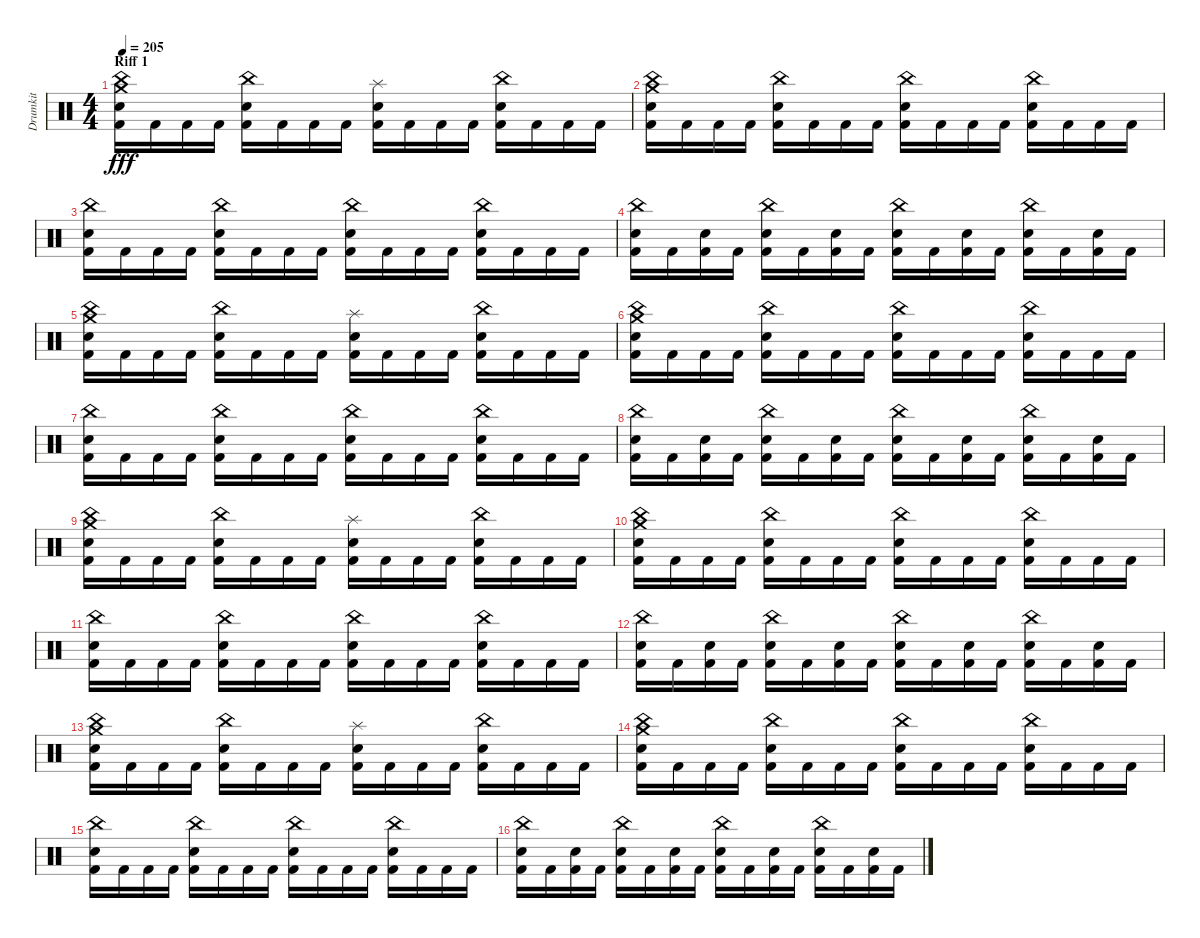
\track ("Drumkit" "Drumkit") {instrument percussion}
\staff {score}
\articulation defaults
\ts (4 4)
\section ("" "Riff 1")
\tempo 205
\clef neutral
\ks c
("Kick (hit) 2" "Snare (hit) 2" "Crash medium (hit)" "China (hit)").16{dy fff} "Kick (hit) 2".16 "Kick (hit) 2".16 "Kick (hit) 2".16 ("Kick (hit) 2" "Snare (hit) 2" "China (hit)").16 "Kick (hit) 2".16 "Kick (hit) 2".16 "Kick (hit) 2".16 ("Kick (hit) 2" "Snare (hit) 2" "Splash (hit)").16 "Kick (hit) 2".16 "Kick (hit) 2".16 "Kick (hit) 2".16 ("Kick (hit) 2" "Snare (hit) 2" "China (hit)").16 "Kick (hit) 2".16 "Kick (hit) 2".16 "Kick (hit) 2".16 |
("Kick (hit) 2" "Snare (hit) 2" "Crash medium (hit)" "China (hit)").16 "Kick (hit) 2".16 "Kick (hit) 2".16 "Kick (hit) 2".16 ("Kick (hit) 2" "Snare (hit) 2" "China (hit)").16 "Kick (hit) 2".16 "Kick (hit) 2".16 "Kick (hit) 2".16 ("Kick (hit) 2" "Snare (hit) 2" "China (hit)").16 "Kick (hit) 2".16 "Kick (hit) 2".16 "Kick (hit) 2".16 ("Kick (hit) 2" "Snare (hit) 2" "China (hit)").16 "Kick (hit) 2".16 "Kick (hit) 2".16 "Kick (hit) 2".16 |
("Kick (hit) 2" "Snare (hit) 2" "China (hit)").16 "Kick (hit) 2".16 "Kick (hit) 2".16 "Kick (hit) 2".16 ("Kick (hit) 2" "Snare (hit) 2" "China (hit)").16 "Kick (hit) 2".16 "Kick (hit) 2".16 "Kick (hit) 2".16 ("Kick (hit) 2" "Snare (hit) 2" "China (hit)").16 "Kick (hit) 2".16 "Kick (hit) 2".16 "Kick (hit) 2".16 ("Kick (hit) 2" "Snare (hit) 2" "China (hit)").16 "Kick (hit) 2".16 "Kick (hit) 2".16 "Kick (hit) 2".16 |
("Kick (hit) 2" "Snare (hit) 2" "China (hit)").16 "Kick (hit) 2".16 ("Kick (hit) 2" "Snare (hit) 2").16 "Kick (hit) 2".16 ("Kick (hit) 2" "Snare (hit) 2" "China (hit)").16 "Kick (hit) 2".16 ("Kick (hit) 2" "Snare (hit) 2").16 "Kick (hit) 2".16 ("Kick (hit) 2" "Snare (hit) 2" "China (hit)").16 "Kick (hit) 2".16 ("Kick (hit) 2" "Snare (hit) 2").16 "Kick (hit) 2".16 ("Kick (hit) 2" "Snare (hit) 2" "China (hit)").16 "Kick (hit) 2".16 ("Kick (hit) 2" "Snare (hit) 2").16 "Kick (hit) 2".16 |
("Kick (hit) 2" "Snare (hit) 2" "Crash medium (hit)" "China (hit)").16 "Kick (hit) 2".16 "Kick (hit) 2".16 "Kick (hit) 2".16 ("Kick (hit) 2" "Snare (hit) 2" "China (hit)").16 "Kick (hit) 2".16 "Kick (hit) 2".16 "Kick (hit) 2".16 ("Kick (hit) 2" "Snare (hit) 2" "Splash (hit)").16 "Kick (hit) 2".16 "Kick (hit) 2".16 "Kick (hit) 2".16 ("Kick (hit) 2" "Snare (hit) 2" "China (hit)").16 "Kick (hit) 2".16 "Kick (hit) 2".16 "Kick (hit) 2".16 |
("Kick (hit) 2" "Snare (hit) 2" "Crash medium (hit)" "China (hit)").16 "Kick (hit) 2".16 "Kick (hit) 2".16 "Kick (hit) 2".16 ("Kick (hit) 2" "Snare (hit) 2" "China (hit)").16 "Kick (hit) 2".16 "Kick (hit) 2".16 "Kick (hit) 2".16 ("Kick (hit) 2" "Snare (hit) 2" "China (hit)").16 "Kick (hit) 2".16 "Kick (hit) 2".16 "Kick (hit) 2".16 ("Kick (hit) 2" "Snare (hit) 2" "China (hit)").16 "Kick (hit) 2".16 "Kick (hit) 2".16 "Kick (hit) 2".16 |
("Kick (hit) 2" "Snare (hit) 2" "China (hit)").16 "Kick (hit) 2".16 "Kick (hit) 2".16 "Kick (hit) 2".16 ("Kick (hit) 2" "Snare (hit) 2" "China (hit)").16 "Kick (hit) 2".16 "Kick (hit) 2".16 "Kick (hit) 2".16 ("Kick (hit) 2" "Snare (hit) 2" "China (hit)").16 "Kick (hit) 2".16 "Kick (hit) 2".16 "Kick (hit) 2".16 ("Kick (hit) 2" "Snare (hit) 2" "China (hit)").16 "Kick (hit) 2".16 "Kick (hit) 2".16 "Kick (hit) 2".16 |
("Kick (hit) 2" "Snare (hit) 2" "China (hit)").16 "Kick (hit) 2".16 ("Kick (hit) 2" "Snare (hit) 2").16 "Kick (hit) 2".16 ("Kick (hit) 2" "Snare (hit) 2" "China (hit)").16 "Kick (hit) 2".16 ("Kick (hit) 2" "Snare (hit) 2").16 "Kick (hit) 2".16 ("Kick (hit) 2" "Snare (hit) 2" "China (hit)").16 "Kick (hit) 2".16 ("Kick (hit) 2" "Snare (hit) 2").16 "Kick (hit) 2".16 ("Kick (hit) 2" "Snare (hit) 2" "China (hit)").16 "Kick (hit) 2".16 ("Kick (hit) 2" "Snare (hit) 2").16 "Kick (hit) 2".16 |
("Kick (hit) 2" "Snare (hit) 2" "Crash medium (hit)" "China (hit)").16 "Kick (hit) 2".16 "Kick (hit) 2".16 "Kick (hit) 2".16 ("Kick (hit) 2" "Snare (hit) 2" "China (hit)").16 "Kick (hit) 2".16 "Kick (hit) 2".16 "Kick (hit) 2".16 ("Kick (hit) 2" "Snare (hit) 2" "Splash (hit)").16 "Kick (hit) 2".16 "Kick (hit) 2".16 "Kick (hit) 2".16 ("Kick (hit) 2" "Snare (hit) 2" "China (hit)").16 "Kick (hit) 2".16 "Kick (hit) 2".16 "Kick (hit) 2".16 |
("Kick (hit) 2" "Snare (hit) 2" "Crash medium (hit)" "China (hit)").16 "Kick (hit) 2".16 "Kick (hit) 2".16 "Kick (hit) 2".16 ("Kick (hit) 2" "Snare (hit) 2" "China (hit)").16 "Kick (hit) 2".16 "Kick (hit) 2".16 "Kick (hit) 2".16 ("Kick (hit) 2" "Snare (hit) 2" "China (hit)").16 "Kick (hit) 2".16 "Kick (hit) 2".16 "Kick (hit) 2".16 ("Kick (hit) 2" "Snare (hit) 2" "China (hit)").16 "Kick (hit) 2".16 "Kick (hit) 2".16 "Kick (hit) 2".16 |
("Kick (hit) 2" "Snare (hit) 2" "China (hit)").16 "Kick (hit) 2".16 "Kick (hit) 2".16 "Kick (hit) 2".16 ("Kick (hit) 2" "Snare (hit) 2" "China (hit)").16 "Kick (hit) 2".16 "Kick (hit) 2".16 "Kick (hit) 2".16 ("Kick (hit) 2" "Snare (hit) 2" "China (hit)").16 "Kick (hit) 2".16 "Kick (hit) 2".16 "Kick (hit) 2".16 ("Kick (hit) 2" "Snare (hit) 2" "China (hit)").16 "Kick (hit) 2".16 "Kick (hit) 2".16 "Kick (hit) 2".16 |
("Kick (hit) 2" "Snare (hit) 2" "China (hit)").16 "Kick (hit) 2".16 ("Kick (hit) 2" "Snare (hit) 2").16 "Kick (hit) 2".16 ("Kick (hit) 2" "Snare (hit) 2" "China (hit)").16 "Kick (hit) 2".16 ("Kick (hit) 2" "Snare (hit) 2").16 "Kick (hit) 2".16 ("Kick (hit) 2" "Snare (hit) 2" "China (hit)").16 "Kick (hit) 2".16 ("Kick (hit) 2" "Snare (hit) 2").16 "Kick (hit) 2".16 ("Kick (hit) 2" "Snare (hit) 2" "China (hit)").16 "Kick (hit) 2".16 ("Kick (hit) 2" "Snare (hit) 2").16 "Kick (hit) 2".16 |
("Kick (hit) 2" "Snare (hit) 2" "Crash medium (hit)" "China (hit)").16 "Kick (hit) 2".16 "Kick (hit) 2".16 "Kick (hit) 2".16 ("Kick (hit) 2" "Snare (hit) 2" "China (hit)").16 "Kick (hit) 2".16 "Kick (hit) 2".16 "Kick (hit) 2".16 ("Kick (hit) 2" "Snare (hit) 2" "Splash (hit)").16 "Kick (hit) 2".16 "Kick (hit) 2".16 "Kick (hit) 2".16 ("Kick (hit) 2" "Snare (hit) 2" "China (hit)").16 "Kick (hit) 2".16 "Kick (hit) 2".16 "Kick (hit) 2".16 |
("Kick (hit) 2" "Snare (hit) 2" "Crash medium (hit)" "China (hit)").16 "Kick (hit) 2".16 "Kick (hit) 2".16 "Kick (hit) 2".16 ("Kick (hit) 2" "Snare (hit) 2" "China (hit)").16 "Kick (hit) 2".16 "Kick (hit) 2".16 "Kick (hit) 2".16 ("Kick (hit) 2" "Snare (hit) 2" "China (hit)").16 "Kick (hit) 2".16 "Kick (hit) 2".16 "Kick (hit) 2".16 ("Kick (hit) 2" "Snare (hit) 2" "China (hit)").16 "Kick (hit) 2".16 "Kick (hit) 2".16 "Kick (hit) 2".16 |
("Kick (hit) 2" "Snare (hit) 2" "China (hit)").16 "Kick (hit) 2".16 "Kick (hit) 2".16 "Kick (hit) 2".16 ("Kick (hit) 2" "Snare (hit) 2" "China (hit)").16 "Kick (hit) 2".16 "Kick (hit) 2".16 "Kick (hit) 2".16 ("Kick (hit) 2" "Snare (hit) 2" "China (hit)").16 "Kick (hit) 2".16 "Kick (hit) 2".16 "Kick (hit) 2".16 ("Kick (hit) 2" "Snare (hit) 2" "China (hit)").16 "Kick (hit) 2".16 "Kick (hit) 2".16 "Kick (hit) 2".16 |
("Kick (hit) 2" "Snare (hit) 2" "China (hit)").16 "Kick (hit) 2".16 ("Kick (hit) 2" "Snare (hit) 2").16 "Kick (hit) 2".16 ("Kick (hit) 2" "Snare (hit) 2" "China (hit)").16 "Kick (hit) 2".16 ("Kick (hit) 2" "Snare (hit) 2").16 "Kick (hit) 2".16 ("Kick (hit) 2" "Snare (hit) 2" "China (hit)").16 "Kick (hit) 2".16 ("Kick (hit) 2" "Snare (hit) 2").16 "Kick (hit) 2".16 ("Kick (hit) 2" "Snare (hit) 2" "China (hit)").16 "Kick (hit) 2".16 ("Kick (hit) 2" "Snare (hit) 2").16 "Kick (hit) 2".16
